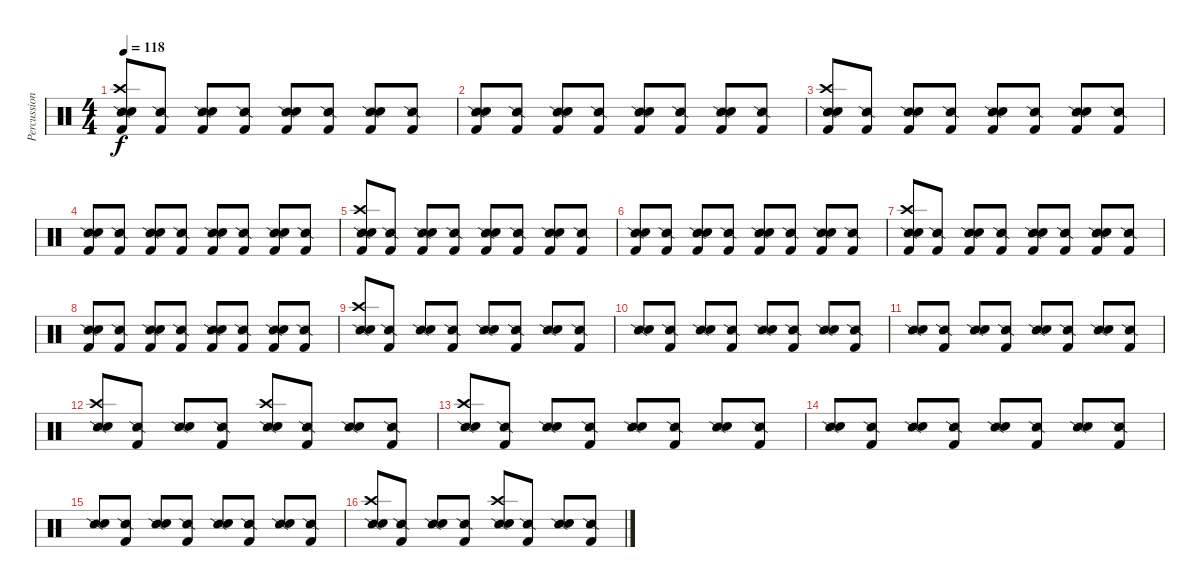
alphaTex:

\track ("Percussion" "Percussion") {instrument percussion}
\staff {score}
\articulation defaults
\ts (4 4)
\tempo 118
\clef neutral
\ks c
("Snare (side stick) 2" "Crash high (hit)" "Electric Snare (hit)" "Kick (hit) 2").8{dy f} ("Snare (side stick) 2" "Kick (hit) 2").8 ("Snare (side stick) 2" "Electric Snare (hit)" "Kick (hit) 2").8 ("Snare (side stick) 2" "Kick (hit) 2").8 ("Snare (side stick) 2" "Electric Snare (hit)" "Kick (hit) 2").8 ("Snare (side stick) 2" "Kick (hit) 2").8 ("Snare (side stick) 2" "Electric Snare (hit)" "Kick (hit) 2").8 ("Snare (side stick) 2" "Kick (hit) 2").8 |
("Snare (side stick) 2" "Electric Snare (hit)" "Kick (hit) 2").8 ("Snare (side stick) 2" "Kick (hit) 2").8 ("Snare (side stick) 2" "Electric Snare (hit)" "Kick (hit) 2").8 ("Snare (side stick) 2" "Kick (hit) 2").8 ("Snare (side stick) 2" "Electric Snare (hit)" "Kick (hit) 2").8 ("Snare (side stick) 2" "Kick (hit) 2").8 ("Snare (side stick) 2" "Electric Snare (hit)" "Kick (hit) 2").8 ("Snare (side stick) 2" "Kick (hit) 2").8 |
("Snare (side stick) 2" "Crash high (hit)" "Electric Snare (hit)" "Kick (hit) 2").8 ("Snare (side stick) 2" "Kick (hit) 2").8 ("Snare (side stick) 2" "Electric Snare (hit)" "Kick (hit) 2").8 ("Snare (side stick) 2" "Kick (hit) 2").8 ("Snare (side stick) 2" "Electric Snare (hit)" "Kick (hit) 2").8 ("Snare (side stick) 2" "Kick (hit) 2").8 ("Snare (side stick) 2" "Electric Snare (hit)" "Kick (hit) 2").8 ("Snare (side stick) 2" "Kick (hit) 2").8 |
("Snare (side stick) 2" "Electric Snare (hit)" "Kick (hit) 2").8 ("Snare (side stick) 2" "Kick (hit) 2").8 ("Snare (side stick) 2" "Electric Snare (hit)" "Kick (hit) 2").8 ("Snare (side stick) 2" "Kick (hit) 2").8 ("Snare (side stick) 2" "Electric Snare (hit)" "Kick (hit) 2").8 ("Snare (side stick) 2" "Kick (hit) 2").8 ("Snare (side stick) 2" "Electric Snare (hit)" "Kick (hit) 2").8 ("Snare (side stick) 2" "Kick (hit) 2").8 |
("Snare (side stick) 2" "Crash high (hit)" "Electric Snare (hit)" "Kick (hit) 2").8 ("Snare (side stick) 2" "Kick (hit) 2").8 ("Snare (side stick) 2" "Electric Snare (hit)" "Kick (hit) 2").8 ("Snare (side stick) 2" "Kick (hit) 2").8 ("Snare (side stick) 2" "Electric Snare (hit)" "Kick (hit) 2").8 ("Snare (side stick) 2" "Kick (hit) 2").8 ("Snare (side stick) 2" "Electric Snare (hit)" "Kick (hit) 2").8 ("Snare (side stick) 2" "Kick (hit) 2").8 |
("Snare (side stick) 2" "Electric Snare (hit)" "Kick (hit) 2").8 ("Snare (side stick) 2" "Kick (hit) 2").8 ("Snare (side stick) 2" "Electric Snare (hit)" "Kick (hit) 2").8 ("Snare (side stick) 2" "Kick (hit) 2").8 ("Snare (side stick) 2" "Electric Snare (hit)" "Kick (hit) 2").8 ("Snare (side stick) 2" "Kick (hit) 2").8 ("Snare (side stick) 2" "Electric Snare (hit)" "Kick (hit) 2").8 ("Snare (side stick) 2" "Kick (hit) 2").8 |
("Snare (side stick) 2" "Crash high (hit)" "Electric Snare (hit)" "Kick (hit) 2").8 ("Snare (side stick) 2" "Kick (hit) 2").8 ("Snare (side stick) 2" "Electric Snare (hit)" "Kick (hit) 2").8 ("Snare (side stick) 2" "Kick (hit) 2").8 ("Snare (side stick) 2" "Electric Snare (hit)" "Kick (hit) 2").8 ("Snare (side stick) 2" "Kick (hit) 2").8 ("Snare (side stick) 2" "Electric Snare (hit)" "Kick (hit) 2").8 ("Snare (side stick) 2" "Kick (hit) 2").8 |
("Snare (side stick) 2" "Electric Snare (hit)" "Kick (hit) 2").8 ("Snare (side stick) 2" "Kick (hit) 2").8 ("Snare (side stick) 2" "Electric Snare (hit)" "Kick (hit) 2").8 ("Snare (side stick) 2" "Kick (hit) 2").8 ("Snare (side stick) 2" "Electric Snare (hit)" "Kick (hit) 2").8 ("Snare (side stick) 2" "Kick (hit) 2").8 ("Snare (side stick) 2" "Electric Snare (hit)" "Kick (hit) 2").8 ("Snare (side stick) 2" "Kick (hit) 2").8 |
("Snare (side stick) 2" "Crash high (hit)" "Electric Snare (hit)").8 ("Snare (side stick) 2" "Kick (hit) 2").8 ("Snare (side stick) 2" "Electric Snare (hit)").8 ("Snare (side stick) 2" "Kick (hit) 2").8 ("Snare (side stick) 2" "Electric Snare (hit)").8 ("Snare (side stick) 2" "Kick (hit) 2").8 ("Snare (side stick) 2" "Electric Snare (hit)").8 ("Snare (side stick) 2" "Kick (hit) 2").8 |
("Snare (side stick) 2" "Electric Snare (hit)").8 ("Snare (side stick) 2" "Kick (hit) 2").8 ("Snare (side stick) 2" "Electric Snare (hit)").8 ("Snare (side stick) 2" "Kick (hit) 2").8 ("Snare (side stick) 2" "Electric Snare (hit)").8 ("Snare (side stick) 2" "Kick (hit) 2").8 ("Snare (side stick) 2" "Electric Snare (hit)").8 ("Snare (side stick) 2" "Kick (hit) 2").8 |
("Snare (side stick) 2" "Electric Snare (hit)").8 ("Snare (side stick) 2" "Kick (hit) 2").8 ("Snare (side stick) 2" "Electric Snare (hit)").8 ("Snare (side stick) 2" "Kick (hit) 2").8 ("Snare (side stick) 2" "Electric Snare (hit)").8 ("Snare (side stick) 2" "Kick (hit) 2").8 ("Snare (side stick) 2" "Electric Snare (hit)").8 ("Snare (side stick) 2" "Kick (hit) 2").8 |
("Snare (side stick) 2" "Crash high (hit)" "Electric Snare (hit)").8 ("Snare (side stick) 2" "Kick (hit) 2").8 ("Snare (side stick) 2" "Electric Snare (hit)").8 ("Snare (side stick) 2" "Kick (hit) 2").8 ("Snare (side stick) 2" "Crash high (hit)" "Electric Snare (hit)").8 ("Snare (side stick) 2" "Kick (hit) 2").8 ("Snare (side stick) 2" "Electric Snare (hit)").8 ("Snare (side stick) 2" "Kick (hit) 2").8 |
("Snare (side stick) 2" "Crash high (hit)" "Electric Snare (hit)").8 ("Snare (side stick) 2" "Kick (hit) 2").8 ("Snare (side stick) 2" "Electric Snare (hit)").8 ("Snare (side stick) 2" "Kick (hit) 2").8 ("Snare (side stick) 2" "Electric Snare (hit)").8 ("Snare (side stick) 2" "Kick (hit) 2").8 ("Snare (side stick) 2" "Electric Snare (hit)").8 ("Snare (side stick) 2" "Kick (hit) 2").8 |
("Snare (side stick) 2" "Electric Snare (hit)").8 ("Snare (side stick) 2" "Kick (hit) 2").8 ("Snare (side stick) 2" "Electric Snare (hit)").8 ("Snare (side stick) 2" "Kick (hit) 2").8 ("Snare (side stick) 2" "Electric Snare (hit)").8 ("Snare (side stick) 2" "Kick (hit) 2").8 ("Snare (side stick) 2" "Electric Snare (hit)").8 ("Snare (side stick) 2" "Kick (hit) 2").8 |
("Snare (side stick) 2" "Electric Snare (hit)").8 ("Snare (side stick) 2" "Kick (hit) 2").8 ("Snare (side stick) 2" "Electric Snare (hit)").8 ("Snare (side stick) 2" "Kick (hit) 2").8 ("Snare (side stick) 2" "Electric Snare (hit)").8 ("Snare (side stick) 2" "Kick (hit) 2").8 ("Snare (side stick) 2" "Electric Snare (hit)").8 ("Snare (side stick) 2" "Kick (hit) 2").8 |
("Snare (side stick) 2" "Crash high (hit)" "Electric Snare (hit)").8 ("Snare (side stick) 2" "Kick (hit) 2").8 ("Snare (side stick) 2" "Electric Snare (hit)").8 ("Snare (side stick) 2" "Kick (hit) 2").8 ("Snare (side stick) 2" "Crash high (hit)" "Electric Snare (hit)").8 ("Snare (side stick) 2" "Kick (hit) 2").8 ("Snare (side stick) 2" "Electric Snare (hit)").8 ("Snare (side stick) 2" "Kick (hit) 2").8
